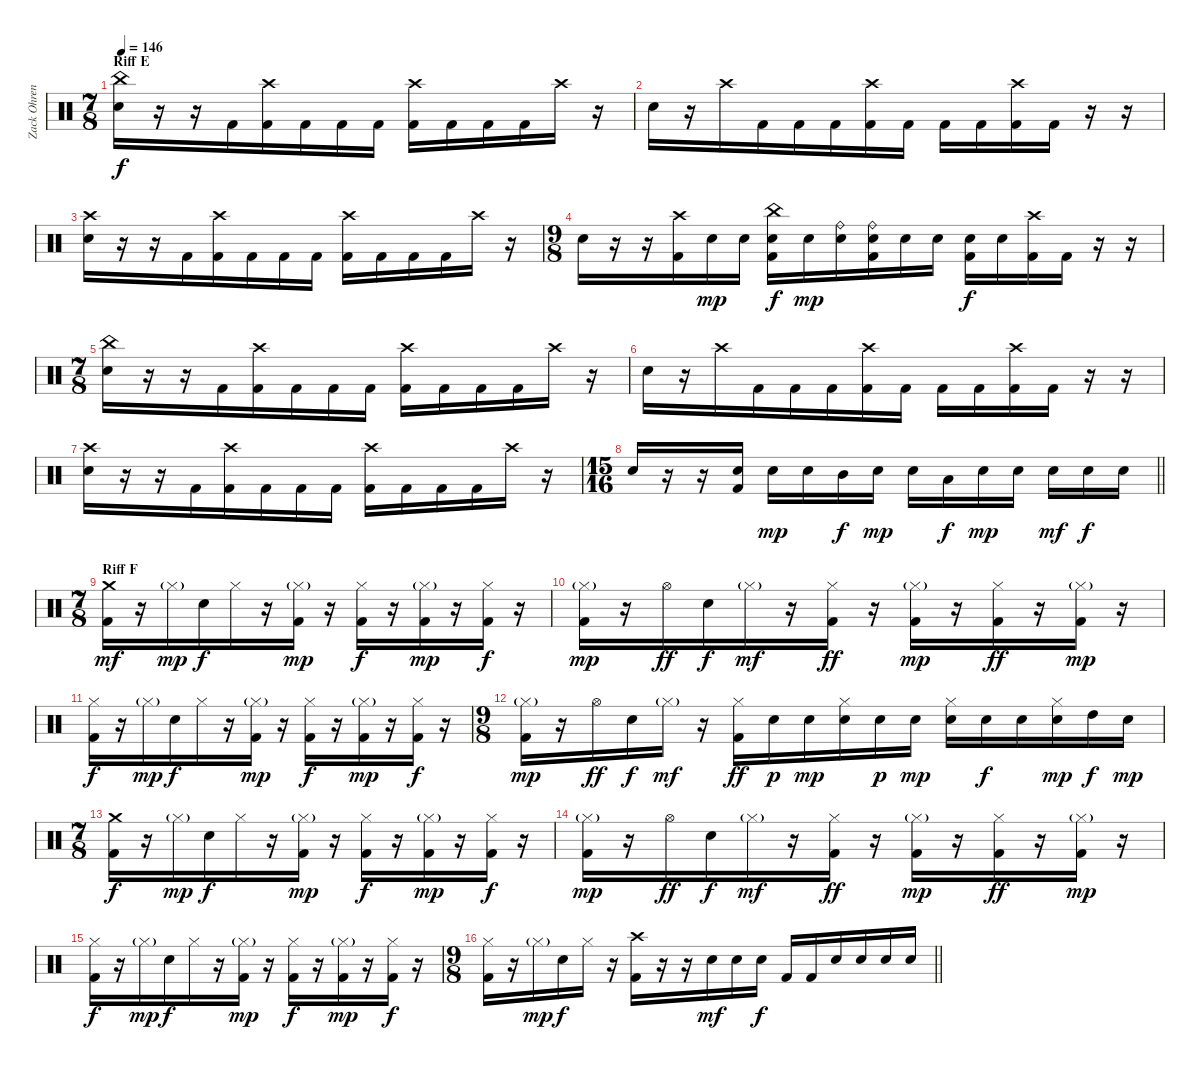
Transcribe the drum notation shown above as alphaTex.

\track ("Zack Ohren" "Zack Ohren") {instrument percussion}
\staff {score}
\articulation defaults
\ts (7 8)
\section ("" "Riff E")
\tempo 146
\clef neutral
\ks c
("Electric Snare (hit)" "China (hit)").16{dy f} r.16 r.16 "Kick (hit) 2".16 ("Kick (hit) 2" "Crash high (hit)").16 "Kick (hit) 2".16 "Kick (hit) 2".16 "Kick (hit) 2".16 ("Kick (hit) 2" "Crash high (hit)").16 "Kick (hit) 2".16 "Kick (hit) 2".16 "Kick (hit) 2".16 "Crash high (hit)".16 r.16 |
"Electric Snare (hit)".16 r.16 "Crash high (hit)".16 "Kick (hit) 2".16 "Kick (hit) 2".16 "Kick (hit) 2".16 ("Kick (hit) 2" "Crash high (hit)").16 "Kick (hit) 2".16 "Kick (hit) 2".16 "Kick (hit) 2".16 ("Kick (hit) 2" "Crash high (hit)").16 "Kick (hit) 2".16 r.16 r.16 |
("Electric Snare (hit)" "Crash high (hit)").16 r.16 r.16 "Kick (hit) 2".16 ("Kick (hit) 2" "Crash high (hit)").16 "Kick (hit) 2".16 "Kick (hit) 2".16 "Kick (hit) 2".16 ("Kick (hit) 2" "Crash high (hit)").16 "Kick (hit) 2".16 "Kick (hit) 2".16 "Kick (hit) 2".16 "Crash high (hit)".16 r.16 |
\ts (9 8)
"Electric Snare (hit)".16 r.16 r.16 ("Kick (hit) 2" "Crash high (hit)").16 "Electric Snare (hit)".16{dy mp} "Electric Snare (hit)".16 ("Electric Snare (hit)" "Kick (hit) 2" "China (hit)").16{dy f} "Electric Snare (hit)".16{dy mp} ("Electric Snare (hit)" "Ride (bell)").16 ("Electric Snare (hit)" "Kick (hit) 2" "Ride (bell)").16 "Electric Snare (hit)".16 "Electric Snare (hit)".16 ("Electric Snare (hit)" "Kick (hit) 2").16{dy f} "Electric Snare (hit)".16 ("Kick (hit) 2" "Crash high (hit)").16 "Kick (hit) 2".16 r.16 r.16 |
\ts (7 8)
("Electric Snare (hit)" "China (hit)").16 r.16 r.16 "Kick (hit) 2".16 ("Kick (hit) 2" "Crash high (hit)").16 "Kick (hit) 2".16 "Kick (hit) 2".16 "Kick (hit) 2".16 ("Kick (hit) 2" "Crash high (hit)").16 "Kick (hit) 2".16 "Kick (hit) 2".16 "Kick (hit) 2".16 "Crash high (hit)".16 r.16 |
"Electric Snare (hit)".16 r.16 "Crash high (hit)".16 "Kick (hit) 2".16 "Kick (hit) 2".16 "Kick (hit) 2".16 ("Kick (hit) 2" "Crash high (hit)").16 "Kick (hit) 2".16 "Kick (hit) 2".16 "Kick (hit) 2".16 ("Kick (hit) 2" "Crash high (hit)").16 "Kick (hit) 2".16 r.16 r.16 |
("Electric Snare (hit)" "Crash high (hit)").16 r.16 r.16 "Kick (hit) 2".16 ("Kick (hit) 2" "Crash high (hit)").16 "Kick (hit) 2".16 "Kick (hit) 2".16 "Kick (hit) 2".16 ("Kick (hit) 2" "Crash high (hit)").16 "Kick (hit) 2".16 "Kick (hit) 2".16 "Kick (hit) 2".16 "Crash high (hit)".16 r.16 |
\ts (15 16)
\barLineRight lightlight "Electric Snare (hit)".16
r.16 r.16 ("Electric Snare (hit)" "Kick (hit) 2").16 "Electric Snare (hit)".16{dy mp} "Electric Snare (hit)".16 "Mid Tom (hit)".16{dy f} "Electric Snare (hit)".16{dy mp} "Electric Snare (hit)".16 "Low Tom (hit)".16{dy f} "Electric Snare (hit)".16{dy mp} "Electric Snare (hit)".16 "Electric Snare (hit)".16{dy mf} "Electric Snare (hit)".16{dy f} "Electric Snare (hit)".16 |
\ts (7 8)
\section ("" "Riff F")
("Kick (hit) 2" "Crash medium (hit)").16{dy mf} r.16 "Hi-Hat (closed)"{g}.16{dy mp} "Electric Snare (hit)".16{dy f} "Hi-Hat (closed)".16 r.16 ("Kick (hit) 2" "Hi-Hat (closed)"{g}).16{dy mp} r.16 ("Kick (hit) 2" "Hi-Hat (closed)").16{dy f} r.16 ("Kick (hit) 2" "Hi-Hat (closed)"{g}).16{dy mp} r.16 ("Kick (hit) 2" "Hi-Hat (closed)").16{dy f} r.16 |
("Kick (hit) 2" "Hi-Hat (closed)"{g}).16{dy mp} r.16 "Hi-Hat (open)".16{dy ff} "Electric Snare (hit)".16{dy f} "Hi-Hat (closed)"{g}.16{dy mf} r.16 ("Kick (hit) 2" "Hi-Hat (closed)").16{dy ff} r.16 ("Kick (hit) 2" "Hi-Hat (closed)"{g}).16{dy mp} r.16 ("Kick (hit) 2" "Hi-Hat (closed)").16{dy ff} r.16 ("Kick (hit) 2" "Hi-Hat (closed)"{g}).16{dy mp} r.16 |
("Kick (hit) 2" "Hi-Hat (closed)").16{dy f} r.16 "Hi-Hat (closed)"{g}.16{dy mp} "Electric Snare (hit)".16{dy f} "Hi-Hat (closed)".16 r.16 ("Kick (hit) 2" "Hi-Hat (closed)"{g}).16{dy mp} r.16 ("Kick (hit) 2" "Hi-Hat (closed)").16{dy f} r.16 ("Kick (hit) 2" "Hi-Hat (closed)"{g}).16{dy mp} r.16 ("Kick (hit) 2" "Hi-Hat (closed)").16{dy f} r.16 |
\ts (9 8)
("Kick (hit) 2" "Hi-Hat (closed)"{g}).16{dy mp} r.16 "Hi-Hat (open)".16{dy ff} "Electric Snare (hit)".16{dy f} "Hi-Hat (closed)"{g}.16{dy mf} r.16 ("Kick (hit) 2" "Hi-Hat (closed)").16{dy ff} "Electric Snare (hit)".16{dy p} "Electric Snare (hit)".16{dy mp} ("Electric Snare (hit)" "Hi-Hat (closed)").16 "Electric Snare (hit)".16{dy p} "Electric Snare (hit)".16{dy mp} ("Electric Snare (hit)" "Hi-Hat (closed)").16 "Electric Snare (hit)".16{dy f} "Electric Snare (hit)".16 ("Electric Snare (hit)" "Hi-Hat (closed)").16{dy mp} "High Tom (hit)".16{dy f} "Electric Snare (hit)".16{dy mp} |
\ts (7 8)
("Kick (hit) 2" "Crash medium (hit)").16{dy f} r.16 "Hi-Hat (closed)"{g}.16{dy mp} "Electric Snare (hit)".16{dy f} "Hi-Hat (closed)".16 r.16 ("Kick (hit) 2" "Hi-Hat (closed)"{g}).16{dy mp} r.16 ("Kick (hit) 2" "Hi-Hat (closed)").16{dy f} r.16 ("Kick (hit) 2" "Hi-Hat (closed)"{g}).16{dy mp} r.16 ("Kick (hit) 2" "Hi-Hat (closed)").16{dy f} r.16 |
("Kick (hit) 2" "Hi-Hat (closed)"{g}).16{dy mp} r.16 "Hi-Hat (open)".16{dy ff} "Electric Snare (hit)".16{dy f} "Hi-Hat (closed)"{g}.16{dy mf} r.16 ("Kick (hit) 2" "Hi-Hat (closed)").16{dy ff} r.16 ("Kick (hit) 2" "Hi-Hat (closed)"{g}).16{dy mp} r.16 ("Kick (hit) 2" "Hi-Hat (closed)").16{dy ff} r.16 ("Kick (hit) 2" "Hi-Hat (closed)"{g}).16{dy mp} r.16 |
("Kick (hit) 2" "Hi-Hat (closed)").16{dy f} r.16 "Hi-Hat (closed)"{g}.16{dy mp} "Electric Snare (hit)".16{dy f} "Hi-Hat (closed)".16 r.16 ("Kick (hit) 2" "Hi-Hat (closed)"{g}).16{dy mp} r.16 ("Kick (hit) 2" "Hi-Hat (closed)").16{dy f} r.16 ("Kick (hit) 2" "Hi-Hat (closed)"{g}).16{dy mp} r.16 ("Kick (hit) 2" "Hi-Hat (closed)").16{dy f} r.16 |
\ts (9 8)
\barLineRight lightlight
("Kick (hit) 2" "Hi-Hat (closed)").16 r.16 "Hi-Hat (closed)"{g}.16{dy mp} "Electric Snare (hit)".16{dy f} "Hi-Hat (closed)".16 r.16 ("Kick (hit) 2" "Crash high (hit)").16 r.16 r.16 "Electric Snare (hit)".16{dy mf} "Electric Snare (hit)".16 "Electric Snare (hit)".16{dy f} "Kick (hit) 2".16 "Kick (hit) 2".16 "Electric Snare (hit)".16 "Electric Snare (hit)".16 "Electric Snare (hit)".16 "Electric Snare (hit)".16
